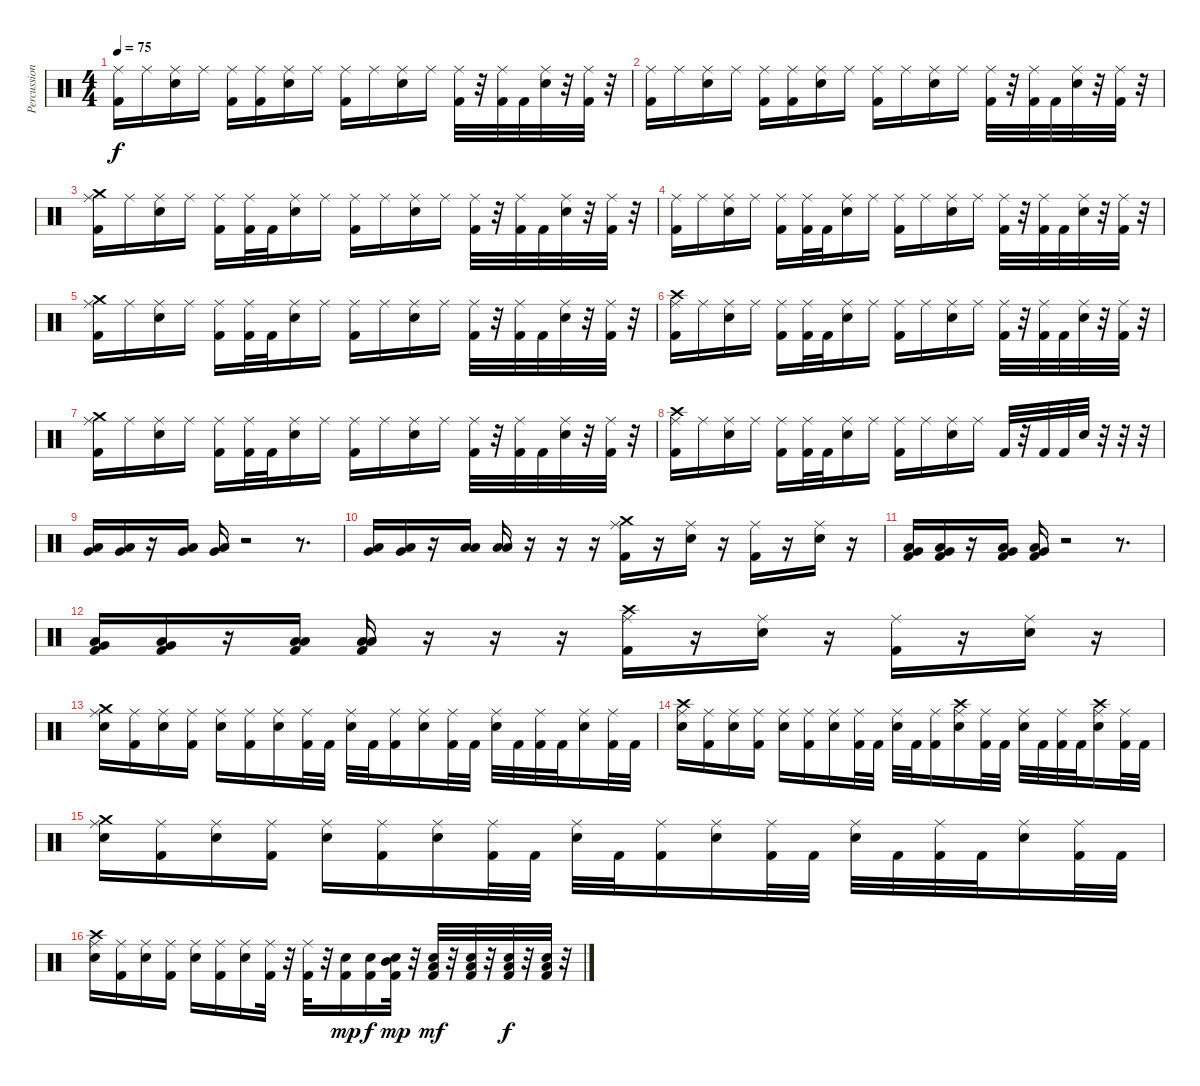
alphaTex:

\track ("Percussion" "Percussion") {instrument percussion}
\staff {score}
\articulation defaults
\ts (4 4)
\tempo 75
\clef neutral
\ks c
("Ride (middle)" "Kick (hit) 2").16{dy f} "Ride (middle)".16 ("Ride (middle)" "Electric Snare (hit)").16 "Ride (middle)".16 ("Ride (middle)" "Kick (hit) 2").16 ("Ride (middle)" "Kick (hit) 2").16 ("Ride (middle)" "Electric Snare (hit)").16 "Ride (middle)".16 ("Ride (middle)" "Kick (hit) 2").16 "Ride (middle)".16 ("Ride (middle)" "Electric Snare (hit)").16 "Ride (middle)".16 ("Ride (middle)" "Kick (hit) 2").32 r.32 ("Ride (middle)" "Kick (hit) 2").32 "Kick (hit) 2".32 ("Ride (middle)" "Electric Snare (hit)").32 r.32 ("Ride (middle)" "Kick (hit) 2").32 r.32 |
("Ride (middle)" "Kick (hit) 2").16 "Ride (middle)".16 ("Ride (middle)" "Electric Snare (hit)").16 "Ride (middle)".16 ("Ride (middle)" "Kick (hit) 2").16 ("Ride (middle)" "Kick (hit) 2").16 ("Ride (middle)" "Electric Snare (hit)").16 "Ride (middle)".16 ("Ride (middle)" "Kick (hit) 2").16 "Ride (middle)".16 ("Ride (middle)" "Electric Snare (hit)").16 "Ride (middle)".16 ("Ride (middle)" "Kick (hit) 2").32 r.32 ("Ride (middle)" "Kick (hit) 2").32 "Kick (hit) 2".32 ("Ride (middle)" "Electric Snare (hit)").32 r.32 ("Ride (middle)" "Kick (hit) 2").32 r.32 |
("Ride (middle)" "Crash medium (hit)" "Kick (hit) 2").16 "Ride (middle)".16 ("Ride (middle)" "Electric Snare (hit)").16 "Ride (middle)".16 ("Ride (middle)" "Kick (hit) 2").16 ("Ride (middle)" "Kick (hit) 2").32 "Kick (hit) 2".32 ("Ride (middle)" "Electric Snare (hit)").16 "Ride (middle)".16 ("Ride (middle)" "Kick (hit) 2").16 "Ride (middle)".16 ("Ride (middle)" "Electric Snare (hit)").16 "Ride (middle)".16 ("Ride (middle)" "Kick (hit) 2").32 r.32 ("Ride (middle)" "Kick (hit) 2").32 "Kick (hit) 2".32 ("Ride (middle)" "Electric Snare (hit)").32 r.32 ("Ride (middle)" "Kick (hit) 2").32 r.32 |
("Ride (middle)" "Kick (hit) 2").16 "Ride (middle)".16 ("Ride (middle)" "Electric Snare (hit)").16 "Ride (middle)".16 ("Ride (middle)" "Kick (hit) 2").16 ("Ride (middle)" "Kick (hit) 2").32 "Kick (hit) 2".32 ("Ride (middle)" "Electric Snare (hit)").16 "Ride (middle)".16 ("Ride (middle)" "Kick (hit) 2").16 "Ride (middle)".16 ("Ride (middle)" "Electric Snare (hit)").16 "Ride (middle)".16 ("Ride (middle)" "Kick (hit) 2").32 r.32 ("Ride (middle)" "Kick (hit) 2").32 "Kick (hit) 2".32 ("Ride (middle)" "Electric Snare (hit)").32 r.32 ("Ride (middle)" "Kick (hit) 2").32 r.32 |
("Ride (middle)" "Crash medium (hit)" "Kick (hit) 2").16 "Ride (middle)".16 ("Ride (middle)" "Electric Snare (hit)").16 "Ride (middle)".16 ("Ride (middle)" "Kick (hit) 2").16 ("Ride (middle)" "Kick (hit) 2").32 "Kick (hit) 2".32 ("Ride (middle)" "Electric Snare (hit)").16 "Ride (middle)".16 ("Ride (middle)" "Kick (hit) 2").16 "Ride (middle)".16 ("Ride (middle)" "Electric Snare (hit)").16 "Ride (middle)".16 ("Ride (middle)" "Kick (hit) 2").32 r.32 ("Ride (middle)" "Kick (hit) 2").32 "Kick (hit) 2".32 ("Ride (middle)" "Electric Snare (hit)").32 r.32 ("Ride (middle)" "Kick (hit) 2").32 r.32 |
("Ride (middle)" "Crash high (hit)" "Kick (hit) 2").16 "Ride (middle)".16 ("Ride (middle)" "Electric Snare (hit)").16 "Ride (middle)".16 ("Ride (middle)" "Kick (hit) 2").16 ("Ride (middle)" "Kick (hit) 2").32 "Kick (hit) 2".32 ("Ride (middle)" "Electric Snare (hit)").16 "Ride (middle)".16 ("Ride (middle)" "Kick (hit) 2").16 "Ride (middle)".16 ("Ride (middle)" "Electric Snare (hit)").16 "Ride (middle)".16 ("Ride (middle)" "Kick (hit) 2").32 r.32 ("Ride (middle)" "Kick (hit) 2").32 "Kick (hit) 2".32 ("Ride (middle)" "Electric Snare (hit)").32 r.32 ("Ride (middle)" "Kick (hit) 2").32 r.32 |
("Ride (middle)" "Crash medium (hit)" "Kick (hit) 2").16 "Ride (middle)".16 ("Ride (middle)" "Electric Snare (hit)").16 "Ride (middle)".16 ("Ride (middle)" "Kick (hit) 2").16 ("Ride (middle)" "Kick (hit) 2").32 "Kick (hit) 2".32 ("Ride (middle)" "Electric Snare (hit)").16 "Ride (middle)".16 ("Ride (middle)" "Kick (hit) 2").16 "Ride (middle)".16 ("Ride (middle)" "Electric Snare (hit)").16 "Ride (middle)".16 ("Ride (middle)" "Kick (hit) 2").32 r.32 ("Ride (middle)" "Kick (hit) 2").32 "Kick (hit) 2".32 ("Ride (middle)" "Electric Snare (hit)").32 r.32 ("Ride (middle)" "Kick (hit) 2").32 r.32 |
("Ride (middle)" "Crash high (hit)" "Kick (hit) 2").16 "Ride (middle)".16 ("Ride (middle)" "Electric Snare (hit)").16 "Ride (middle)".16 ("Ride (middle)" "Kick (hit) 2").16 ("Ride (middle)" "Kick (hit) 2").32 "Kick (hit) 2".32 ("Ride (middle)" "Electric Snare (hit)").16 "Ride (middle)".16 ("Ride (middle)" "Kick (hit) 2").16 "Ride (middle)".16 ("Ride (middle)" "Electric Snare (hit)").16 "Ride (middle)".16 "Kick (hit) 2".32 r.32 "Kick (hit) 2".32 "Kick (hit) 2".32 "Electric Snare (hit)".32 r.32 r.32 r.32 |
("Low Tom (hit)" "Very Low Tom (hit)").16 ("Low Tom (hit)" "Very Low Tom (hit)").16 r.16 ("Low Tom (hit)" "Very Low Tom (hit)").16 ("Low Tom (hit)" "Very Low Tom (hit)").16 r.2 r.8{d} |
("Very Low Tom (hit)" "Low Tom (hit)").16 ("Very Low Tom (hit)" "Low Tom (hit)").16 r.16 ("Low Floor Tom (hit)" "Low Tom (hit)").16 ("Low Floor Tom (hit)" "Low Tom (hit)").16 r.16 r.16 r.16 ("Ride (middle)" "Crash medium (hit)" "Kick (hit) 2").16 r.16 ("Ride (middle)" "Electric Snare (hit)").16 r.16 ("Ride (middle)" "Kick (hit) 2").16 r.16 ("Ride (middle)" "Electric Snare (hit)").16 r.16 |
("Kick (hit) 2" "Low Tom (hit)" "Very Low Tom (hit)").16 ("Kick (hit) 2" "Low Tom (hit)" "Very Low Tom (hit)").16 r.16 ("Kick (hit) 2" "Low Tom (hit)" "Very Low Tom (hit)").16 ("Kick (hit) 2" "Low Tom (hit)" "Very Low Tom (hit)").16 r.2 r.8{d} |
("Kick (hit) 2" "Very Low Tom (hit)" "Low Tom (hit)").16 ("Kick (hit) 2" "Very Low Tom (hit)" "Low Tom (hit)").16 r.16 ("Kick (hit) 2" "Low Floor Tom (hit)" "Low Tom (hit)").16 ("Kick (hit) 2" "Low Floor Tom (hit)" "Low Tom (hit)").16 r.16 r.16 r.16 ("Ride (middle)" "Crash high (hit)" "Kick (hit) 2").16 r.16 ("Ride (middle)" "Electric Snare (hit)").16 r.16 ("Ride (middle)" "Kick (hit) 2").16 r.16 ("Ride (middle)" "Electric Snare (hit)").16 r.16 |
("Ride (middle)" "Crash medium (hit)" "Electric Snare (hit)").16 ("Ride (middle)" "Kick (hit) 2").16 ("Ride (middle)" "Electric Snare (hit)").16 ("Ride (middle)" "Kick (hit) 2").16 ("Ride (middle)" "Electric Snare (hit)").16 ("Ride (middle)" "Kick (hit) 2").16 ("Ride (middle)" "Electric Snare (hit)").16 ("Ride (middle)" "Kick (hit) 2").32 "Kick (hit) 2".32 ("Ride (middle)" "Electric Snare (hit)").32 "Kick (hit) 2".32 ("Ride (middle)" "Kick (hit) 2").16 ("Ride (middle)" "Electric Snare (hit)").16 ("Ride (middle)" "Kick (hit) 2").32 "Kick (hit) 2".32 ("Ride (middle)" "Electric Snare (hit)").32 "Kick (hit) 2".32 ("Ride (middle)" "Kick (hit) 2").32 "Kick (hit) 2".32 ("Ride (middle)" "Electric Snare (hit)").16 ("Ride (middle)" "Kick (hit) 2").32 "Kick (hit) 2".32 |
("Ride (middle)" "Crash high (hit)" "Electric Snare (hit)").16 ("Ride (middle)" "Kick (hit) 2").16 ("Ride (middle)" "Electric Snare (hit)").16 ("Ride (middle)" "Kick (hit) 2").16 ("Ride (middle)" "Electric Snare (hit)").16 ("Ride (middle)" "Kick (hit) 2").16 ("Ride (middle)" "Electric Snare (hit)").16 ("Ride (middle)" "Kick (hit) 2").32 "Kick (hit) 2".32 ("Ride (middle)" "Electric Snare (hit)").32 "Kick (hit) 2".32 ("Ride (middle)" "Kick (hit) 2").16 ("Ride (middle)" "Crash high (hit)" "Electric Snare (hit)").16 ("Ride (middle)" "Kick (hit) 2").32 "Kick (hit) 2".32 ("Ride (middle)" "Electric Snare (hit)").32 "Kick (hit) 2".32 ("Ride (middle)" "Kick (hit) 2").32 "Kick (hit) 2".32 ("Ride (middle)" "Crash high (hit)" "Electric Snare (hit)").16 ("Ride (middle)" "Kick (hit) 2").32 "Kick (hit) 2".32 |
("Ride (middle)" "Crash medium (hit)" "Electric Snare (hit)").16 ("Ride (middle)" "Kick (hit) 2").16 ("Ride (middle)" "Electric Snare (hit)").16 ("Ride (middle)" "Kick (hit) 2").16 ("Ride (middle)" "Electric Snare (hit)").16 ("Ride (middle)" "Kick (hit) 2").16 ("Ride (middle)" "Electric Snare (hit)").16 ("Ride (middle)" "Kick (hit) 2").32 "Kick (hit) 2".32 ("Ride (middle)" "Electric Snare (hit)").32 "Kick (hit) 2".32 ("Ride (middle)" "Kick (hit) 2").16 ("Ride (middle)" "Electric Snare (hit)").16 ("Ride (middle)" "Kick (hit) 2").32 "Kick (hit) 2".32 ("Ride (middle)" "Electric Snare (hit)").32 "Kick (hit) 2".32 ("Ride (middle)" "Kick (hit) 2").32 "Kick (hit) 2".32 ("Ride (middle)" "Electric Snare (hit)").16 ("Ride (middle)" "Kick (hit) 2").32 "Kick (hit) 2".32 |
("Ride (middle)" "Crash high (hit)" "Electric Snare (hit)").16 ("Ride (middle)" "Kick (hit) 2").16 ("Ride (middle)" "Electric Snare (hit)").16 ("Ride (middle)" "Kick (hit) 2").16 ("Ride (middle)" "Electric Snare (hit)").16 ("Ride (middle)" "Kick (hit) 2").16 ("Ride (middle)" "Electric Snare (hit)").16 ("Ride (middle)" "Kick (hit) 2").32 r.32 ("Ride (middle)" "Kick (hit) 2").32 r.32 ("Kick (hit) 2" "Electric Snare (hit)").16{dy mp} ("Kick (hit) 2" "Electric Snare (hit)").16{dy f} ("Kick (hit) 2" "Electric Snare (hit)" "Mid Tom (hit)").32{dy mp} r.32 ("Kick (hit) 2" "Electric Snare (hit)" "Low Tom (hit)").32{dy mf} r.32 ("Kick (hit) 2" "Electric Snare (hit)" "Low Tom (hit)").32 r.32 ("Kick (hit) 2" "Electric Snare (hit)" "Low Tom (hit)").32{dy f} r.32 ("Kick (hit) 2" "Electric Snare (hit)" "Low Tom (hit)").32 r.32
